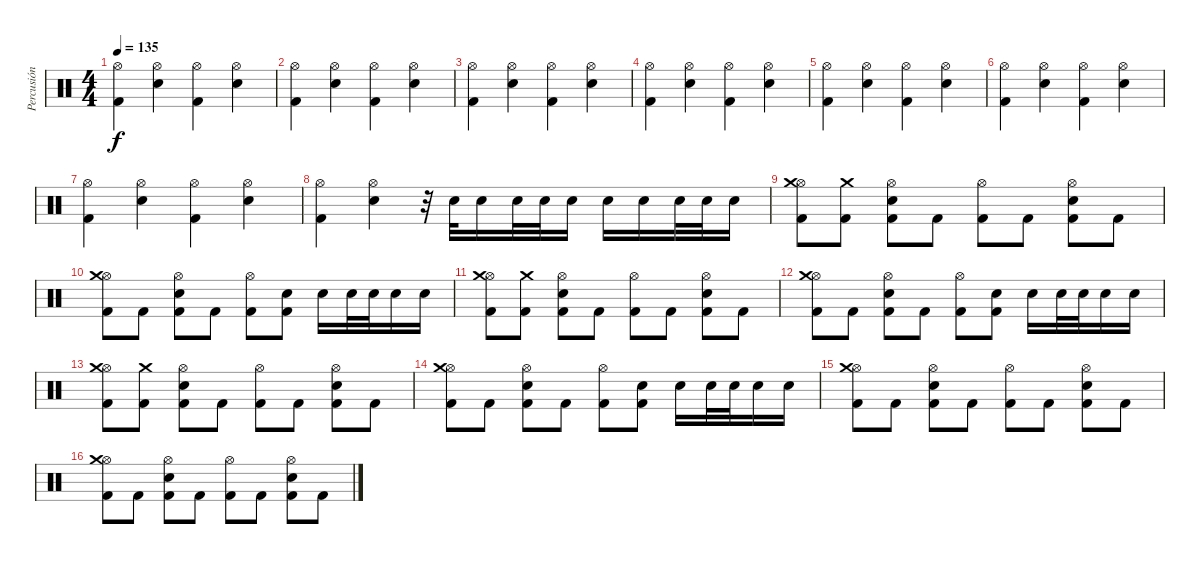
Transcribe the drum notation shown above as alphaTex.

\track ("Percusión" "Percusión") {instrument percussion}
\staff {score}
\articulation defaults
\ts (4 4)
\tempo 135
\clef neutral
\ks c
("Hi-Hat (open)" "Kick (hit) 2").4{dy f} ("Hi-Hat (open)" "Electric Snare (hit)").4 ("Hi-Hat (open)" "Kick (hit) 2").4 ("Hi-Hat (open)" "Electric Snare (hit)").4 |
("Hi-Hat (open)" "Kick (hit) 2").4 ("Hi-Hat (open)" "Electric Snare (hit)").4 ("Hi-Hat (open)" "Kick (hit) 2").4 ("Hi-Hat (open)" "Electric Snare (hit)").4 |
("Hi-Hat (open)" "Kick (hit) 2").4 ("Hi-Hat (open)" "Electric Snare (hit)").4 ("Hi-Hat (open)" "Kick (hit) 2").4 ("Hi-Hat (open)" "Electric Snare (hit)").4 |
("Hi-Hat (open)" "Kick (hit) 2").4 ("Hi-Hat (open)" "Electric Snare (hit)").4 ("Hi-Hat (open)" "Kick (hit) 2").4 ("Hi-Hat (open)" "Electric Snare (hit)").4 |
("Hi-Hat (open)" "Kick (hit) 2").4 ("Hi-Hat (open)" "Electric Snare (hit)").4 ("Hi-Hat (open)" "Kick (hit) 2").4 ("Hi-Hat (open)" "Electric Snare (hit)").4 |
("Hi-Hat (open)" "Kick (hit) 2").4 ("Hi-Hat (open)" "Electric Snare (hit)").4 ("Hi-Hat (open)" "Kick (hit) 2").4 ("Hi-Hat (open)" "Electric Snare (hit)").4 |
("Hi-Hat (open)" "Kick (hit) 2").4 ("Hi-Hat (open)" "Electric Snare (hit)").4 ("Hi-Hat (open)" "Kick (hit) 2").4 ("Hi-Hat (open)" "Electric Snare (hit)").4 |
("Hi-Hat (open)" "Kick (hit) 2").4 ("Hi-Hat (open)" "Electric Snare (hit)").4 r.32 "Snare (hit) 2".32 "Snare (hit) 2".16 "Snare (hit) 2".32 "Snare (hit) 2".32 "Snare (hit) 2".16 "Snare (hit) 2".16 "Snare (hit) 2".16 "Snare (hit) 2".32 "Snare (hit) 2".32 "Snare (hit) 2".16 |
("Hi-Hat (open)" "Kick (hit) 2" "Crash medium (hit)").8 ("Kick (hit) 2" "Crash medium (hit)").8 ("Hi-Hat (open)" "Electric Snare (hit)" "Kick (hit) 2").8 "Kick (hit) 2".8 ("Hi-Hat (open)" "Kick (hit) 2").8 "Kick (hit) 2".8 ("Hi-Hat (open)" "Electric Snare (hit)" "Kick (hit) 2").8 "Kick (hit) 2".8 |
("Hi-Hat (open)" "Kick (hit) 2" "Crash medium (hit)").8 "Kick (hit) 2".8 ("Hi-Hat (open)" "Electric Snare (hit)" "Kick (hit) 2").8 "Kick (hit) 2".8 ("Hi-Hat (open)" "Kick (hit) 2").8 ("Kick (hit) 2" "Electric Snare (hit)").8 "Electric Snare (hit)".16 "Electric Snare (hit)".32 "Electric Snare (hit)".32 "Electric Snare (hit)".16 "Electric Snare (hit)".16 |
("Hi-Hat (open)" "Kick (hit) 2" "Crash medium (hit)").8 ("Kick (hit) 2" "Crash medium (hit)").8 ("Hi-Hat (open)" "Electric Snare (hit)" "Kick (hit) 2").8 "Kick (hit) 2".8 ("Hi-Hat (open)" "Kick (hit) 2").8 "Kick (hit) 2".8 ("Hi-Hat (open)" "Electric Snare (hit)" "Kick (hit) 2").8 "Kick (hit) 2".8 |
("Hi-Hat (open)" "Kick (hit) 2" "Crash medium (hit)").8 "Kick (hit) 2".8 ("Hi-Hat (open)" "Electric Snare (hit)" "Kick (hit) 2").8 "Kick (hit) 2".8 ("Hi-Hat (open)" "Kick (hit) 2").8 ("Kick (hit) 2" "Electric Snare (hit)").8 "Electric Snare (hit)".16 "Electric Snare (hit)".32 "Electric Snare (hit)".32 "Electric Snare (hit)".16 "Electric Snare (hit)".16 |
("Hi-Hat (open)" "Kick (hit) 2" "Crash medium (hit)").8 ("Kick (hit) 2" "Crash medium (hit)").8 ("Hi-Hat (open)" "Electric Snare (hit)" "Kick (hit) 2").8 "Kick (hit) 2".8 ("Hi-Hat (open)" "Kick (hit) 2").8 "Kick (hit) 2".8 ("Hi-Hat (open)" "Electric Snare (hit)" "Kick (hit) 2").8 "Kick (hit) 2".8 |
("Hi-Hat (open)" "Kick (hit) 2" "Crash medium (hit)").8 "Kick (hit) 2".8 ("Hi-Hat (open)" "Electric Snare (hit)" "Kick (hit) 2").8 "Kick (hit) 2".8 ("Hi-Hat (open)" "Kick (hit) 2").8 ("Kick (hit) 2" "Electric Snare (hit)").8 "Electric Snare (hit)".16 "Electric Snare (hit)".32 "Electric Snare (hit)".32 "Electric Snare (hit)".16 "Electric Snare (hit)".16 |
("Hi-Hat (open)" "Kick (hit) 2" "Crash medium (hit)").8 "Kick (hit) 2".8 ("Hi-Hat (open)" "Electric Snare (hit)" "Kick (hit) 2").8 "Kick (hit) 2".8 ("Hi-Hat (open)" "Kick (hit) 2").8 "Kick (hit) 2".8 ("Hi-Hat (open)" "Electric Snare (hit)" "Kick (hit) 2").8 "Kick (hit) 2".8 |
("Hi-Hat (open)" "Kick (hit) 2" "Crash medium (hit)").8 "Kick (hit) 2".8 ("Hi-Hat (open)" "Electric Snare (hit)" "Kick (hit) 2").8 "Kick (hit) 2".8 ("Hi-Hat (open)" "Kick (hit) 2").8 "Kick (hit) 2".8 ("Hi-Hat (open)" "Electric Snare (hit)" "Kick (hit) 2").8 "Kick (hit) 2".8
